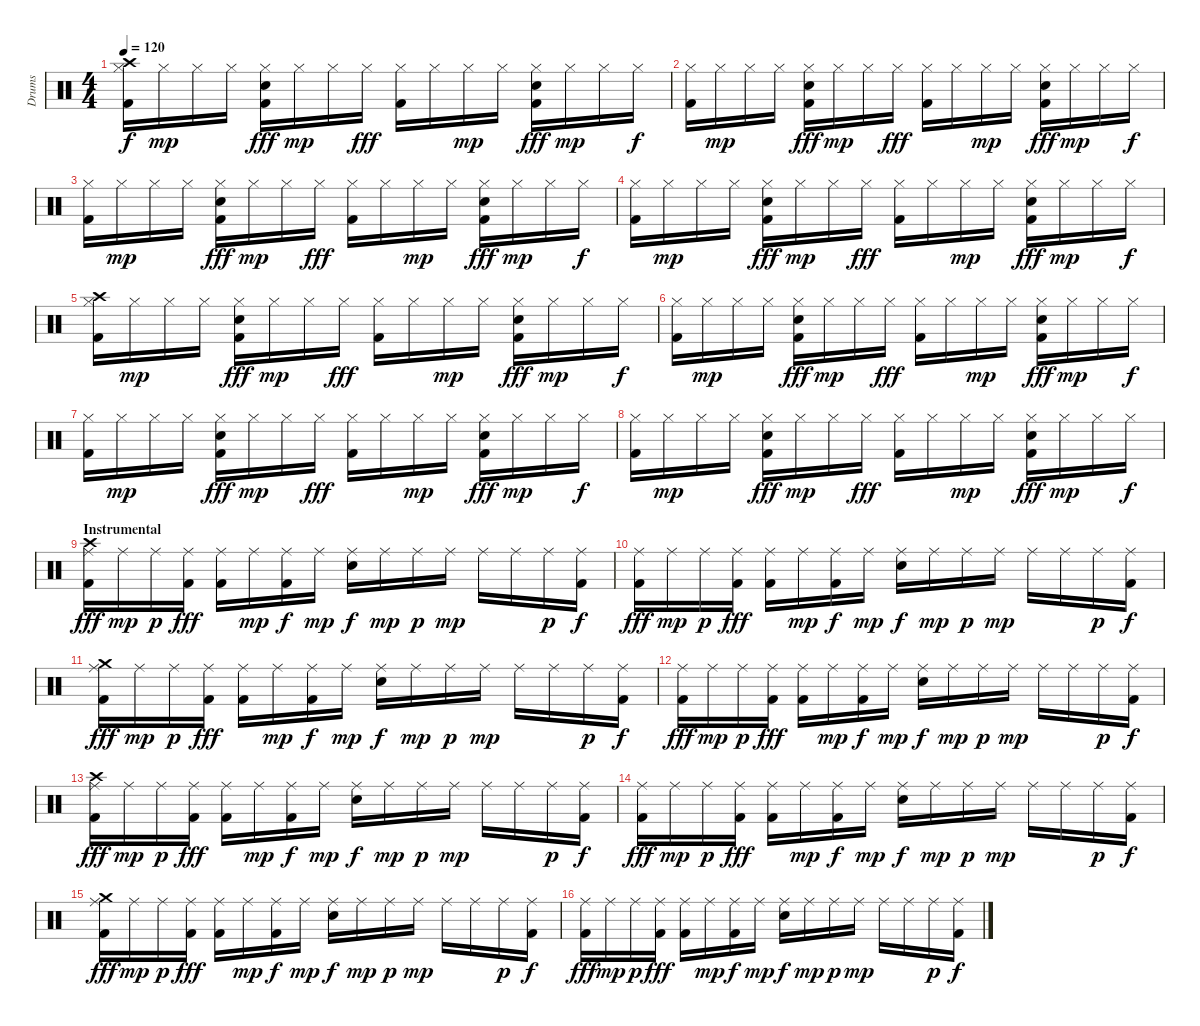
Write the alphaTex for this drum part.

\track ("Drums" "Drums") {instrument percussion}
\staff {score}
\articulation defaults
\ts (4 4)
\tempo 120
\clef neutral
\ks c
("Hi-Hat (closed)" "Crash high (hit)" "Kick (hit) 2").16{dy f} "Hi-Hat (closed)".16{dy mp} "Hi-Hat (closed)".16 "Hi-Hat (closed)".16 ("Hi-Hat (closed)" "Snare (hit) 2" "Kick (hit) 2").16{dy fff} "Hi-Hat (closed)".16{dy mp} "Hi-Hat (closed)".16 "Hi-Hat (closed)".16{dy fff} ("Hi-Hat (closed)" "Kick (hit) 2").16 "Hi-Hat (closed)".16 "Hi-Hat (closed)".16{dy mp} "Hi-Hat (closed)".16 ("Hi-Hat (closed)" "Snare (hit) 2" "Kick (hit) 2").16{dy fff} "Hi-Hat (closed)".16{dy mp} "Hi-Hat (closed)".16 "Hi-Hat (closed)".16{dy f} |
("Hi-Hat (closed)" "Kick (hit) 2").16 "Hi-Hat (closed)".16{dy mp} "Hi-Hat (closed)".16 "Hi-Hat (closed)".16 ("Hi-Hat (closed)" "Snare (hit) 2" "Kick (hit) 2").16{dy fff} "Hi-Hat (closed)".16{dy mp} "Hi-Hat (closed)".16 "Hi-Hat (closed)".16{dy fff} ("Hi-Hat (closed)" "Kick (hit) 2").16 "Hi-Hat (closed)".16 "Hi-Hat (closed)".16{dy mp} "Hi-Hat (closed)".16 ("Hi-Hat (closed)" "Snare (hit) 2" "Kick (hit) 2").16{dy fff} "Hi-Hat (closed)".16{dy mp} "Hi-Hat (closed)".16 "Hi-Hat (closed)".16{dy f} |
("Hi-Hat (closed)" "Kick (hit) 2").16 "Hi-Hat (closed)".16{dy mp} "Hi-Hat (closed)".16 "Hi-Hat (closed)".16 ("Hi-Hat (closed)" "Snare (hit) 2" "Kick (hit) 2").16{dy fff} "Hi-Hat (closed)".16{dy mp} "Hi-Hat (closed)".16 "Hi-Hat (closed)".16{dy fff} ("Hi-Hat (closed)" "Kick (hit) 2").16 "Hi-Hat (closed)".16 "Hi-Hat (closed)".16{dy mp} "Hi-Hat (closed)".16 ("Hi-Hat (closed)" "Snare (hit) 2" "Kick (hit) 2").16{dy fff} "Hi-Hat (closed)".16{dy mp} "Hi-Hat (closed)".16 "Hi-Hat (closed)".16{dy f} |
("Hi-Hat (closed)" "Kick (hit) 2").16 "Hi-Hat (closed)".16{dy mp} "Hi-Hat (closed)".16 "Hi-Hat (closed)".16 ("Hi-Hat (closed)" "Snare (hit) 2" "Kick (hit) 2").16{dy fff} "Hi-Hat (closed)".16{dy mp} "Hi-Hat (closed)".16 "Hi-Hat (closed)".16{dy fff} ("Hi-Hat (closed)" "Kick (hit) 2").16 "Hi-Hat (closed)".16 "Hi-Hat (closed)".16{dy mp} "Hi-Hat (closed)".16 ("Hi-Hat (closed)" "Snare (hit) 2" "Kick (hit) 2").16{dy fff} "Hi-Hat (closed)".16{dy mp} "Hi-Hat (closed)".16 "Hi-Hat (closed)".16{dy f} |
("Hi-Hat (closed)" "Crash high (hit)" "Kick (hit) 2").16 "Hi-Hat (closed)".16{dy mp} "Hi-Hat (closed)".16 "Hi-Hat (closed)".16 ("Hi-Hat (closed)" "Snare (hit) 2" "Kick (hit) 2").16{dy fff} "Hi-Hat (closed)".16{dy mp} "Hi-Hat (closed)".16 "Hi-Hat (closed)".16{dy fff} ("Hi-Hat (closed)" "Kick (hit) 2").16 "Hi-Hat (closed)".16 "Hi-Hat (closed)".16{dy mp} "Hi-Hat (closed)".16 ("Hi-Hat (closed)" "Snare (hit) 2" "Kick (hit) 2").16{dy fff} "Hi-Hat (closed)".16{dy mp} "Hi-Hat (closed)".16 "Hi-Hat (closed)".16{dy f} |
("Hi-Hat (closed)" "Kick (hit) 2").16 "Hi-Hat (closed)".16{dy mp} "Hi-Hat (closed)".16 "Hi-Hat (closed)".16 ("Hi-Hat (closed)" "Snare (hit) 2" "Kick (hit) 2").16{dy fff} "Hi-Hat (closed)".16{dy mp} "Hi-Hat (closed)".16 "Hi-Hat (closed)".16{dy fff} ("Hi-Hat (closed)" "Kick (hit) 2").16 "Hi-Hat (closed)".16 "Hi-Hat (closed)".16{dy mp} "Hi-Hat (closed)".16 ("Hi-Hat (closed)" "Snare (hit) 2" "Kick (hit) 2").16{dy fff} "Hi-Hat (closed)".16{dy mp} "Hi-Hat (closed)".16 "Hi-Hat (closed)".16{dy f} |
("Hi-Hat (closed)" "Kick (hit) 2").16 "Hi-Hat (closed)".16{dy mp} "Hi-Hat (closed)".16 "Hi-Hat (closed)".16 ("Hi-Hat (closed)" "Snare (hit) 2" "Kick (hit) 2").16{dy fff} "Hi-Hat (closed)".16{dy mp} "Hi-Hat (closed)".16 "Hi-Hat (closed)".16{dy fff} ("Hi-Hat (closed)" "Kick (hit) 2").16 "Hi-Hat (closed)".16 "Hi-Hat (closed)".16{dy mp} "Hi-Hat (closed)".16 ("Hi-Hat (closed)" "Snare (hit) 2" "Kick (hit) 2").16{dy fff} "Hi-Hat (closed)".16{dy mp} "Hi-Hat (closed)".16 "Hi-Hat (closed)".16{dy f} |
("Hi-Hat (closed)" "Kick (hit) 2").16 "Hi-Hat (closed)".16{dy mp} "Hi-Hat (closed)".16 "Hi-Hat (closed)".16 ("Hi-Hat (closed)" "Snare (hit) 2" "Kick (hit) 2").16{dy fff} "Hi-Hat (closed)".16{dy mp} "Hi-Hat (closed)".16 "Hi-Hat (closed)".16{dy fff} ("Hi-Hat (closed)" "Kick (hit) 2").16 "Hi-Hat (closed)".16 "Hi-Hat (closed)".16{dy mp} "Hi-Hat (closed)".16 ("Hi-Hat (closed)" "Snare (hit) 2" "Kick (hit) 2").16{dy fff} "Hi-Hat (closed)".16{dy mp} "Hi-Hat (closed)".16 "Hi-Hat (closed)".16{dy f} |
\section ("" "Instrumental")
("Ride (middle)" "Crash high (hit)" "Kick (hit) 2").16{dy fff} "Ride (middle)".16{dy mp} "Ride (middle)".16{dy p} ("Ride (middle)" "Kick (hit) 2").16{dy fff} ("Ride (middle)" "Kick (hit) 2").16 "Ride (middle)".16{dy mp} ("Ride (middle)" "Kick (hit) 2").16{dy f} "Ride (middle)".16{dy mp} ("Ride (middle)" "Snare (hit) 2").16{dy f} "Ride (middle)".16{dy mp} "Ride (middle)".16{dy p} "Ride (middle)".16{dy mp} "Ride (middle)".16 "Ride (middle)".16 "Ride (middle)".16{dy p} ("Ride (middle)" "Kick (hit) 2").16{dy f} |
("Ride (middle)" "Kick (hit) 2").16{dy fff} "Ride (middle)".16{dy mp} "Ride (middle)".16{dy p} ("Ride (middle)" "Kick (hit) 2").16{dy fff} ("Ride (middle)" "Kick (hit) 2").16 "Ride (middle)".16{dy mp} ("Ride (middle)" "Kick (hit) 2").16{dy f} "Ride (middle)".16{dy mp} ("Ride (middle)" "Snare (hit) 2").16{dy f} "Ride (middle)".16{dy mp} "Ride (middle)".16{dy p} "Ride (middle)".16{dy mp} "Ride (middle)".16 "Ride (middle)".16 "Ride (middle)".16{dy p} ("Ride (middle)" "Kick (hit) 2").16{dy f} |
("Ride (middle)" "Crash medium (hit)" "Kick (hit) 2").16{dy fff} "Ride (middle)".16{dy mp} "Ride (middle)".16{dy p} ("Ride (middle)" "Kick (hit) 2").16{dy fff} ("Ride (middle)" "Kick (hit) 2").16 "Ride (middle)".16{dy mp} ("Ride (middle)" "Kick (hit) 2").16{dy f} "Ride (middle)".16{dy mp} ("Ride (middle)" "Snare (hit) 2").16{dy f} "Ride (middle)".16{dy mp} "Ride (middle)".16{dy p} "Ride (middle)".16{dy mp} "Ride (middle)".16 "Ride (middle)".16 "Ride (middle)".16{dy p} ("Ride (middle)" "Kick (hit) 2").16{dy f} |
("Ride (middle)" "Kick (hit) 2").16{dy fff} "Ride (middle)".16{dy mp} "Ride (middle)".16{dy p} ("Ride (middle)" "Kick (hit) 2").16{dy fff} ("Ride (middle)" "Kick (hit) 2").16 "Ride (middle)".16{dy mp} ("Ride (middle)" "Kick (hit) 2").16{dy f} "Ride (middle)".16{dy mp} ("Ride (middle)" "Snare (hit) 2").16{dy f} "Ride (middle)".16{dy mp} "Ride (middle)".16{dy p} "Ride (middle)".16{dy mp} "Ride (middle)".16 "Ride (middle)".16 "Ride (middle)".16{dy p} ("Ride (middle)" "Kick (hit) 2").16{dy f} |
("Ride (middle)" "Crash high (hit)" "Kick (hit) 2").16{dy fff} "Ride (middle)".16{dy mp} "Ride (middle)".16{dy p} ("Ride (middle)" "Kick (hit) 2").16{dy fff} ("Ride (middle)" "Kick (hit) 2").16 "Ride (middle)".16{dy mp} ("Ride (middle)" "Kick (hit) 2").16{dy f} "Ride (middle)".16{dy mp} ("Ride (middle)" "Snare (hit) 2").16{dy f} "Ride (middle)".16{dy mp} "Ride (middle)".16{dy p} "Ride (middle)".16{dy mp} "Ride (middle)".16 "Ride (middle)".16 "Ride (middle)".16{dy p} ("Ride (middle)" "Kick (hit) 2").16{dy f} |
("Ride (middle)" "Kick (hit) 2").16{dy fff} "Ride (middle)".16{dy mp} "Ride (middle)".16{dy p} ("Ride (middle)" "Kick (hit) 2").16{dy fff} ("Ride (middle)" "Kick (hit) 2").16 "Ride (middle)".16{dy mp} ("Ride (middle)" "Kick (hit) 2").16{dy f} "Ride (middle)".16{dy mp} ("Ride (middle)" "Snare (hit) 2").16{dy f} "Ride (middle)".16{dy mp} "Ride (middle)".16{dy p} "Ride (middle)".16{dy mp} "Ride (middle)".16 "Ride (middle)".16 "Ride (middle)".16{dy p} ("Ride (middle)" "Kick (hit) 2").16{dy f} |
("Ride (middle)" "Crash medium (hit)" "Kick (hit) 2").16{dy fff} "Ride (middle)".16{dy mp} "Ride (middle)".16{dy p} ("Ride (middle)" "Kick (hit) 2").16{dy fff} ("Ride (middle)" "Kick (hit) 2").16 "Ride (middle)".16{dy mp} ("Ride (middle)" "Kick (hit) 2").16{dy f} "Ride (middle)".16{dy mp} ("Ride (middle)" "Snare (hit) 2").16{dy f} "Ride (middle)".16{dy mp} "Ride (middle)".16{dy p} "Ride (middle)".16{dy mp} "Ride (middle)".16 "Ride (middle)".16 "Ride (middle)".16{dy p} ("Ride (middle)" "Kick (hit) 2").16{dy f} |
("Ride (middle)" "Kick (hit) 2").16{dy fff} "Ride (middle)".16{dy mp} "Ride (middle)".16{dy p} ("Ride (middle)" "Kick (hit) 2").16{dy fff} ("Ride (middle)" "Kick (hit) 2").16 "Ride (middle)".16{dy mp} ("Ride (middle)" "Kick (hit) 2").16{dy f} "Ride (middle)".16{dy mp} ("Ride (middle)" "Snare (hit) 2").16{dy f} "Ride (middle)".16{dy mp} "Ride (middle)".16{dy p} "Ride (middle)".16{dy mp} "Ride (middle)".16 "Ride (middle)".16 "Ride (middle)".16{dy p} ("Ride (middle)" "Kick (hit) 2").16{dy f}
